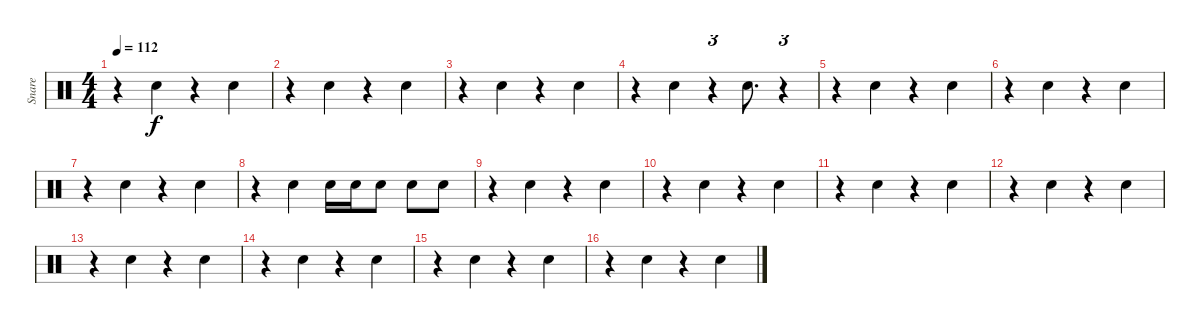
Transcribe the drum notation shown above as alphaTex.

\track ("Snare" "Snare") {instrument percussion}
\staff {score}
\articulation defaults
\ts (4 4)
\tempo 112
\clef neutral
\ks c
r.4{dy f} "Snare (hit) 2".4 r.4 "Snare (hit) 2".4 |
r.4 "Snare (hit) 2".4 r.4 "Snare (hit) 2".4 |
r.4 "Snare (hit) 2".4 r.4 "Snare (hit) 2".4 |
r.4 "Snare (hit) 2".4 r.4{tu (3 2)} "Snare (hit) 2".8{d} r.4{tu (3 2)} |
r.4 "Snare (hit) 2".4 r.4 "Snare (hit) 2".4 |
r.4 "Snare (hit) 2".4 r.4 "Snare (hit) 2".4 |
r.4 "Snare (hit) 2".4 r.4 "Snare (hit) 2".4 |
r.4 "Snare (hit) 2".4 "Snare (hit) 2".16 "Snare (hit) 2".16 "Snare (hit) 2".8 "Snare (hit) 2".8 "Snare (hit) 2".8 |
r.4 "Snare (hit) 2".4 r.4 "Snare (hit) 2".4 |
r.4 "Snare (hit) 2".4 r.4 "Snare (hit) 2".4 |
r.4 "Snare (hit) 2".4 r.4 "Snare (hit) 2".4 |
r.4 "Snare (hit) 2".4 r.4 "Snare (hit) 2".4 |
r.4 "Snare (hit) 2".4 r.4 "Snare (hit) 2".4 |
r.4 "Snare (hit) 2".4 r.4 "Snare (hit) 2".4 |
r.4 "Snare (hit) 2".4 r.4 "Snare (hit) 2".4 |
r.4 "Snare (hit) 2".4 r.4 "Snare (hit) 2".4
